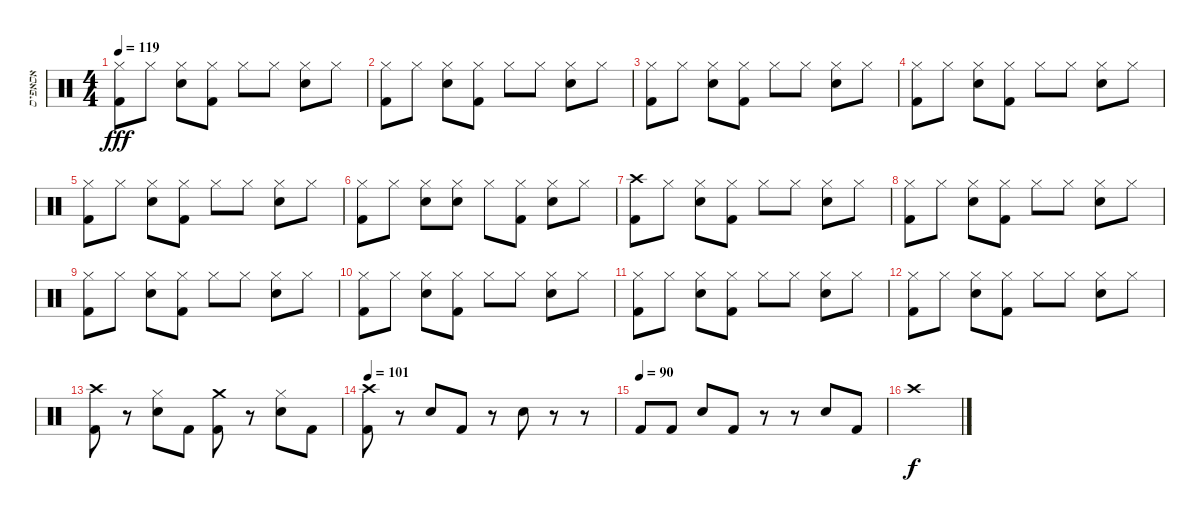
\track ("אסאפיס" "אסאפיס") {instrument percussion}
\staff {score}
\articulation defaults
\ts (4 4)
\tempo 119
\clef neutral
\ks c
("Hi-Hat (closed)" "Kick (hit) 2").8{dy fff} "Hi-Hat (closed)".8 ("Hi-Hat (closed)" "Snare (hit) 2").8 ("Hi-Hat (closed)" "Kick (hit) 2").8 "Hi-Hat (closed)".8 "Hi-Hat (closed)".8 ("Hi-Hat (closed)" "Snare (hit) 2").8 "Hi-Hat (closed)".8 |
("Hi-Hat (closed)" "Kick (hit) 2").8 "Hi-Hat (closed)".8 ("Hi-Hat (closed)" "Snare (hit) 2").8 ("Hi-Hat (closed)" "Kick (hit) 2").8 "Hi-Hat (closed)".8 "Hi-Hat (closed)".8 ("Hi-Hat (closed)" "Snare (hit) 2").8 "Hi-Hat (closed)".8 |
("Hi-Hat (closed)" "Kick (hit) 2").8 "Hi-Hat (closed)".8 ("Hi-Hat (closed)" "Snare (hit) 2").8 ("Hi-Hat (closed)" "Kick (hit) 2").8 "Hi-Hat (closed)".8 "Hi-Hat (closed)".8 ("Hi-Hat (closed)" "Snare (hit) 2").8 "Hi-Hat (closed)".8 |
("Hi-Hat (closed)" "Kick (hit) 2").8 "Hi-Hat (closed)".8 ("Hi-Hat (closed)" "Snare (hit) 2").8 ("Hi-Hat (closed)" "Kick (hit) 2").8 "Hi-Hat (closed)".8 "Hi-Hat (closed)".8 ("Hi-Hat (closed)" "Snare (hit) 2").8 "Hi-Hat (closed)".8 |
("Hi-Hat (closed)" "Kick (hit) 2").8 "Hi-Hat (closed)".8 ("Hi-Hat (closed)" "Snare (hit) 2").8 ("Hi-Hat (closed)" "Kick (hit) 2").8 "Hi-Hat (closed)".8 "Hi-Hat (closed)".8 ("Hi-Hat (closed)" "Snare (hit) 2").8 "Hi-Hat (closed)".8 |
("Hi-Hat (closed)" "Kick (hit) 2").8 "Hi-Hat (closed)".8 ("Hi-Hat (closed)" "Snare (hit) 2").8 ("Hi-Hat (closed)" "Snare (hit) 2").8 "Hi-Hat (closed)".8 ("Hi-Hat (closed)" "Kick (hit) 2").8 ("Hi-Hat (closed)" "Snare (hit) 2").8 "Hi-Hat (closed)".8 |
("Crash high (hit)" "Kick (hit) 2").8 "Hi-Hat (closed)".8 ("Hi-Hat (closed)" "Snare (hit) 2").8 ("Hi-Hat (closed)" "Kick (hit) 2").8 "Hi-Hat (closed)".8 "Hi-Hat (closed)".8 ("Hi-Hat (closed)" "Snare (hit) 2").8 "Hi-Hat (closed)".8 |
("Hi-Hat (closed)" "Kick (hit) 2").8 "Hi-Hat (closed)".8 ("Hi-Hat (closed)" "Snare (hit) 2").8 ("Hi-Hat (closed)" "Kick (hit) 2").8 "Hi-Hat (closed)".8 "Hi-Hat (closed)".8 ("Hi-Hat (closed)" "Snare (hit) 2").8 "Hi-Hat (closed)".8 |
("Hi-Hat (closed)" "Kick (hit) 2").8 "Hi-Hat (closed)".8 ("Hi-Hat (closed)" "Snare (hit) 2").8 ("Hi-Hat (closed)" "Kick (hit) 2").8 "Hi-Hat (closed)".8 "Hi-Hat (closed)".8 ("Hi-Hat (closed)" "Snare (hit) 2").8 "Hi-Hat (closed)".8 |
("Hi-Hat (closed)" "Kick (hit) 2").8 "Hi-Hat (closed)".8 ("Hi-Hat (closed)" "Snare (hit) 2").8 ("Hi-Hat (closed)" "Kick (hit) 2").8 "Hi-Hat (closed)".8 "Hi-Hat (closed)".8 ("Hi-Hat (closed)" "Snare (hit) 2").8 "Hi-Hat (closed)".8 |
("Hi-Hat (closed)" "Kick (hit) 2").8 "Hi-Hat (closed)".8 ("Hi-Hat (closed)" "Snare (hit) 2").8 ("Hi-Hat (closed)" "Kick (hit) 2").8 "Hi-Hat (closed)".8 "Hi-Hat (closed)".8 ("Hi-Hat (closed)" "Snare (hit) 2").8 "Hi-Hat (closed)".8 |
("Hi-Hat (closed)" "Kick (hit) 2").8 "Hi-Hat (closed)".8 ("Hi-Hat (closed)" "Snare (hit) 2").8 ("Hi-Hat (closed)" "Kick (hit) 2").8 "Hi-Hat (closed)".8 "Hi-Hat (closed)".8 ("Hi-Hat (closed)" "Snare (hit) 2").8 "Hi-Hat (closed)".8 |
("Crash high (hit)" "Kick (hit) 2").8 r.8 ("Hi-Hat (closed)" "Snare (hit) 2").8 "Kick (hit) 2".8 ("Crash medium (hit)" "Kick (hit) 2").8 r.8 ("Hi-Hat (closed)" "Snare (hit) 2").8 "Kick (hit) 2".8 |
\tempo 101
("Crash high (hit)" "Kick (hit) 2").8 r.8 "Snare (hit) 2".8 "Kick (hit) 2".8 r.8 "Snare (hit) 2".8 r.8 r.8 |
\tempo (90)
"Kick (hit) 2".8 "Kick (hit) 2".8 "Snare (hit) 2".8 "Kick (hit) 2".8 r.8 r.8 "Snare (hit) 2".8 "Kick (hit) 2".8 |
"Crash high (hit)".1{dy f}
